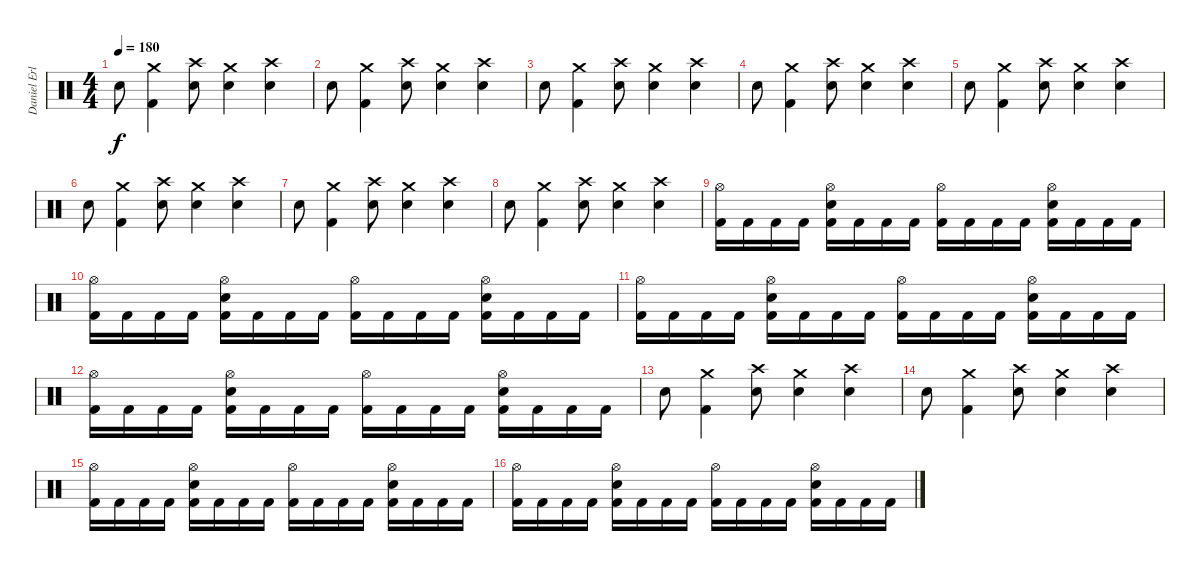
\track ("Daniel Erlandson" "Daniel Erl") {instrument percussion}
\staff {score}
\articulation defaults
\ts (4 4)
\tempo 180
\clef neutral
\ks c "Electric Snare (hit)".8{dy f}
("Crash medium (hit)" "Kick (hit) 2").4 ("Crash high (hit)" "Electric Snare (hit)").8 ("Crash medium (hit)" "Electric Snare (hit)").4 ("Crash high (hit)" "Electric Snare (hit)").4 |
"Electric Snare (hit)".8 ("Crash medium (hit)" "Kick (hit) 2").4 ("Crash high (hit)" "Electric Snare (hit)").8 ("Crash medium (hit)" "Electric Snare (hit)").4 ("Crash high (hit)" "Electric Snare (hit)").4 |
"Electric Snare (hit)".8 ("Crash medium (hit)" "Kick (hit) 2").4 ("Crash high (hit)" "Electric Snare (hit)").8 ("Crash medium (hit)" "Electric Snare (hit)").4 ("Crash high (hit)" "Electric Snare (hit)").4 |
"Electric Snare (hit)".8 ("Crash medium (hit)" "Kick (hit) 2").4 ("Crash high (hit)" "Electric Snare (hit)").8 ("Crash medium (hit)" "Electric Snare (hit)").4 ("Crash high (hit)" "Electric Snare (hit)").4 |
"Electric Snare (hit)".8 ("Crash medium (hit)" "Kick (hit) 2").4 ("Crash high (hit)" "Electric Snare (hit)").8 ("Crash medium (hit)" "Electric Snare (hit)").4 ("Crash high (hit)" "Electric Snare (hit)").4 |
"Electric Snare (hit)".8 ("Crash medium (hit)" "Kick (hit) 2").4 ("Crash high (hit)" "Electric Snare (hit)").8 ("Crash medium (hit)" "Electric Snare (hit)").4 ("Crash high (hit)" "Electric Snare (hit)").4 |
"Electric Snare (hit)".8 ("Crash medium (hit)" "Kick (hit) 2").4 ("Crash high (hit)" "Electric Snare (hit)").8 ("Crash medium (hit)" "Electric Snare (hit)").4 ("Crash high (hit)" "Electric Snare (hit)").4 |
"Electric Snare (hit)".8 ("Crash medium (hit)" "Kick (hit) 2").4 ("Crash high (hit)" "Electric Snare (hit)").8 ("Crash medium (hit)" "Electric Snare (hit)").4 ("Crash high (hit)" "Electric Snare (hit)").4 |
("Hi-Hat (open)" "Kick (hit) 2").16 "Kick (hit) 2".16 "Kick (hit) 2".16 "Kick (hit) 2".16 ("Hi-Hat (open)" "Electric Snare (hit)" "Kick (hit) 2").16 "Kick (hit) 2".16 "Kick (hit) 2".16 "Kick (hit) 2".16 ("Hi-Hat (open)" "Kick (hit) 2").16 "Kick (hit) 2".16 "Kick (hit) 2".16 "Kick (hit) 2".16 ("Hi-Hat (open)" "Electric Snare (hit)" "Kick (hit) 2").16 "Kick (hit) 2".16 "Kick (hit) 2".16 "Kick (hit) 2".16 |
("Hi-Hat (open)" "Kick (hit) 2").16 "Kick (hit) 2".16 "Kick (hit) 2".16 "Kick (hit) 2".16 ("Hi-Hat (open)" "Electric Snare (hit)" "Kick (hit) 2").16 "Kick (hit) 2".16 "Kick (hit) 2".16 "Kick (hit) 2".16 ("Hi-Hat (open)" "Kick (hit) 2").16 "Kick (hit) 2".16 "Kick (hit) 2".16 "Kick (hit) 2".16 ("Hi-Hat (open)" "Electric Snare (hit)" "Kick (hit) 2").16 "Kick (hit) 2".16 "Kick (hit) 2".16 "Kick (hit) 2".16 |
("Hi-Hat (open)" "Kick (hit) 2").16 "Kick (hit) 2".16 "Kick (hit) 2".16 "Kick (hit) 2".16 ("Hi-Hat (open)" "Electric Snare (hit)" "Kick (hit) 2").16 "Kick (hit) 2".16 "Kick (hit) 2".16 "Kick (hit) 2".16 ("Hi-Hat (open)" "Kick (hit) 2").16 "Kick (hit) 2".16 "Kick (hit) 2".16 "Kick (hit) 2".16 ("Hi-Hat (open)" "Electric Snare (hit)" "Kick (hit) 2").16 "Kick (hit) 2".16 "Kick (hit) 2".16 "Kick (hit) 2".16 |
("Hi-Hat (open)" "Kick (hit) 2").16 "Kick (hit) 2".16 "Kick (hit) 2".16 "Kick (hit) 2".16 ("Hi-Hat (open)" "Electric Snare (hit)" "Kick (hit) 2").16 "Kick (hit) 2".16 "Kick (hit) 2".16 "Kick (hit) 2".16 ("Hi-Hat (open)" "Kick (hit) 2").16 "Kick (hit) 2".16 "Kick (hit) 2".16 "Kick (hit) 2".16 ("Hi-Hat (open)" "Electric Snare (hit)" "Kick (hit) 2").16 "Kick (hit) 2".16 "Kick (hit) 2".16 "Kick (hit) 2".16 |
"Electric Snare (hit)".8 ("Crash medium (hit)" "Kick (hit) 2").4 ("Crash high (hit)" "Electric Snare (hit)").8 ("Crash medium (hit)" "Electric Snare (hit)").4 ("Crash high (hit)" "Electric Snare (hit)").4 |
"Electric Snare (hit)".8 ("Crash medium (hit)" "Kick (hit) 2").4 ("Crash high (hit)" "Electric Snare (hit)").8 ("Crash medium (hit)" "Electric Snare (hit)").4 ("Crash high (hit)" "Electric Snare (hit)").4 |
("Hi-Hat (open)" "Kick (hit) 2").16 "Kick (hit) 2".16 "Kick (hit) 2".16 "Kick (hit) 2".16 ("Hi-Hat (open)" "Electric Snare (hit)" "Kick (hit) 2").16 "Kick (hit) 2".16 "Kick (hit) 2".16 "Kick (hit) 2".16 ("Hi-Hat (open)" "Kick (hit) 2").16 "Kick (hit) 2".16 "Kick (hit) 2".16 "Kick (hit) 2".16 ("Hi-Hat (open)" "Electric Snare (hit)" "Kick (hit) 2").16 "Kick (hit) 2".16 "Kick (hit) 2".16 "Kick (hit) 2".16 |
("Hi-Hat (open)" "Kick (hit) 2").16 "Kick (hit) 2".16 "Kick (hit) 2".16 "Kick (hit) 2".16 ("Hi-Hat (open)" "Electric Snare (hit)" "Kick (hit) 2").16 "Kick (hit) 2".16 "Kick (hit) 2".16 "Kick (hit) 2".16 ("Hi-Hat (open)" "Kick (hit) 2").16 "Kick (hit) 2".16 "Kick (hit) 2".16 "Kick (hit) 2".16 ("Hi-Hat (open)" "Electric Snare (hit)" "Kick (hit) 2").16 "Kick (hit) 2".16 "Kick (hit) 2".16 "Kick (hit) 2".16
